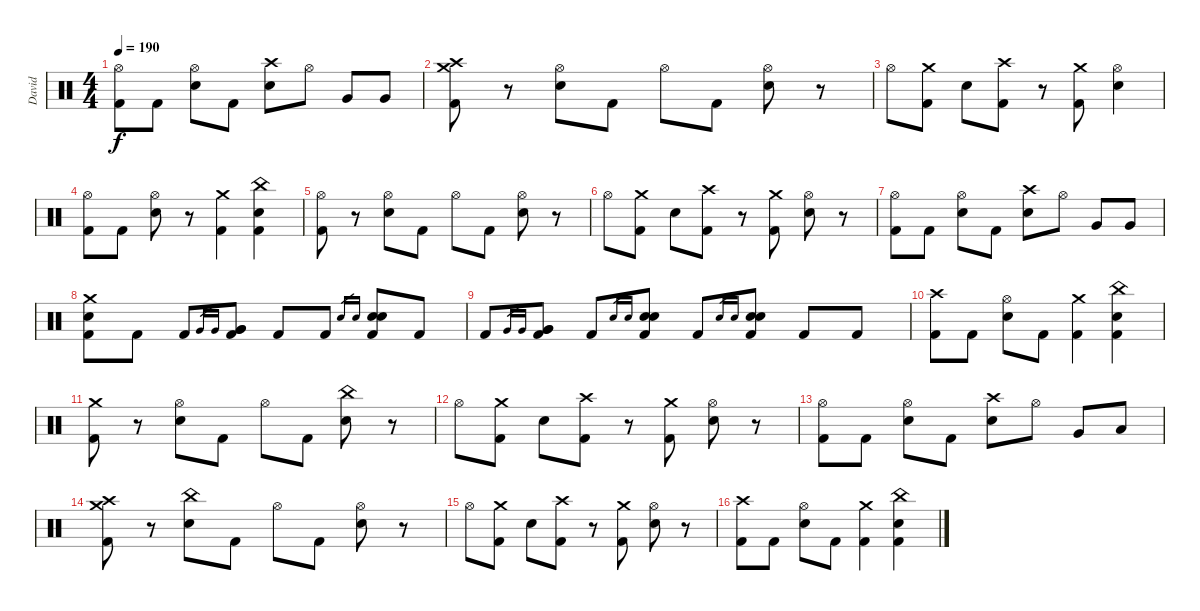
\track ("David" "David") {instrument percussion}
\staff {score}
\articulation defaults
\ts (4 4)
\tempo 190
\clef neutral
\ks c
("Hi-Hat (open)" "Kick (hit) 2").8{dy f} "Kick (hit) 2".8 ("Hi-Hat (open)" "Electric Snare (hit)").8 "Kick (hit) 2".8 ("Crash high (hit)" "Electric Snare (hit)").8 "Hi-Hat (open)".8 "Very Low Tom (hit)".8 "Very Low Tom (hit)".8 |
("Crash medium (hit)" "Crash high (hit)" "Kick (hit) 2").8 r.8 ("Hi-Hat (open)" "Electric Snare (hit)").8 "Kick (hit) 2".8 "Hi-Hat (open)".8 "Kick (hit) 2".8 ("Hi-Hat (open)" "Electric Snare (hit)").8 r.8 |
"Hi-Hat (open)".8 ("Crash medium (hit)" "Kick (hit) 2").8 "Electric Snare (hit)".8 ("Crash high (hit)" "Kick (hit) 2").8 r.8 ("Crash medium (hit)" "Kick (hit) 2").8 ("Hi-Hat (open)" "Electric Snare (hit)").4 |
("Hi-Hat (open)" "Kick (hit) 2").8 "Kick (hit) 2".8 ("Hi-Hat (open)" "Electric Snare (hit)").8 r.8 ("Crash medium (hit)" "Kick (hit) 2").4 ("China (hit)" "Electric Snare (hit)" "Kick (hit) 2").4 |
("Hi-Hat (open)" "Kick (hit) 2").8 r.8 ("Hi-Hat (open)" "Electric Snare (hit)").8 "Kick (hit) 2".8 "Hi-Hat (open)".8 "Kick (hit) 2".8 ("Hi-Hat (open)" "Electric Snare (hit)").8 r.8 |
"Hi-Hat (open)".8 ("Crash medium (hit)" "Kick (hit) 2").8 "Electric Snare (hit)".8 ("Crash high (hit)" "Kick (hit) 2").8 r.8 ("Crash medium (hit)" "Kick (hit) 2").8 ("Hi-Hat (open)" "Electric Snare (hit)").8 r.8 |
("Hi-Hat (open)" "Kick (hit) 2").8 "Kick (hit) 2".8 ("Hi-Hat (open)" "Electric Snare (hit)").8 "Kick (hit) 2".8 ("Crash high (hit)" "Electric Snare (hit)").8 "Hi-Hat (open)".8 "Very Low Tom (hit)".8 "Very Low Tom (hit)".8 |
("Crash medium (hit)" "Electric Snare (hit)" "Kick (hit) 2").8 "Kick (hit) 2".8 "Kick (hit) 2".8 "Very Low Tom (hit)".16{gr} "Very Low Tom (hit)".16{gr} ("Very Low Tom (hit)" "Very Low Tom (hit)" "Kick (hit) 2").8 "Kick (hit) 2".8 "Kick (hit) 2".8 "Electric Snare (hit)".16{gr} "Electric Snare (hit)".16{gr} ("Electric Snare (hit)" "Electric Snare (hit)" "Kick (hit) 2").8 "Kick (hit) 2".8 |
"Kick (hit) 2".8 "Very Low Tom (hit)".16{gr} "Very Low Tom (hit)".16{gr} ("Very Low Tom (hit)" "Very Low Tom (hit)" "Kick (hit) 2").8 "Kick (hit) 2".8 "Electric Snare (hit)".16{gr} "Electric Snare (hit)".16{gr} ("Electric Snare (hit)" "Electric Snare (hit)" "Kick (hit) 2").8 "Kick (hit) 2".8 "Electric Snare (hit)".16{gr} "Electric Snare (hit)".16{gr} ("Electric Snare (hit)" "Electric Snare (hit)" "Kick (hit) 2").8 "Kick (hit) 2".8 "Kick (hit) 2".8 |
("Crash high (hit)" "Kick (hit) 2").8 "Kick (hit) 2".8 ("Hi-Hat (open)" "Electric Snare (hit)").8 "Kick (hit) 2".8 ("Crash medium (hit)" "Kick (hit) 2").4 ("China (hit)" "Electric Snare (hit)" "Kick (hit) 2").4 |
("Crash medium (hit)" "Kick (hit) 2").8 r.8 ("Hi-Hat (open)" "Electric Snare (hit)").8 "Kick (hit) 2".8 "Hi-Hat (open)".8 "Kick (hit) 2".8 ("China (hit)" "Electric Snare (hit)").8 r.8 |
"Hi-Hat (open)".8 ("Crash medium (hit)" "Kick (hit) 2").8 "Electric Snare (hit)".8 ("Crash high (hit)" "Kick (hit) 2").8 r.8 ("Crash medium (hit)" "Kick (hit) 2").8 ("Hi-Hat (open)" "Electric Snare (hit)").8 r.8 |
("Hi-Hat (open)" "Kick (hit) 2").8 "Kick (hit) 2".8 ("Hi-Hat (open)" "Electric Snare (hit)").8 "Kick (hit) 2".8 ("Crash high (hit)" "Electric Snare (hit)").8 "Hi-Hat (open)".8 "Very Low Tom (hit)".8 "Low Floor Tom (hit)".8 |
("Crash medium (hit)" "Crash high (hit)" "Kick (hit) 2").8 r.8 ("China (hit)" "Electric Snare (hit)").8 "Kick (hit) 2".8 "Hi-Hat (open)".8 "Kick (hit) 2".8 ("Hi-Hat (open)" "Electric Snare (hit)").8 r.8 |
"Hi-Hat (open)".8 ("Crash medium (hit)" "Kick (hit) 2").8 "Electric Snare (hit)".8 ("Crash high (hit)" "Kick (hit) 2").8 r.8 ("Crash medium (hit)" "Kick (hit) 2").8 ("Hi-Hat (open)" "Electric Snare (hit)").8 r.8 |
("Crash high (hit)" "Kick (hit) 2").8 "Kick (hit) 2".8 ("Hi-Hat (open)" "Electric Snare (hit)").8 "Kick (hit) 2".8 ("Crash medium (hit)" "Kick (hit) 2").4 ("China (hit)" "Electric Snare (hit)" "Kick (hit) 2").4
